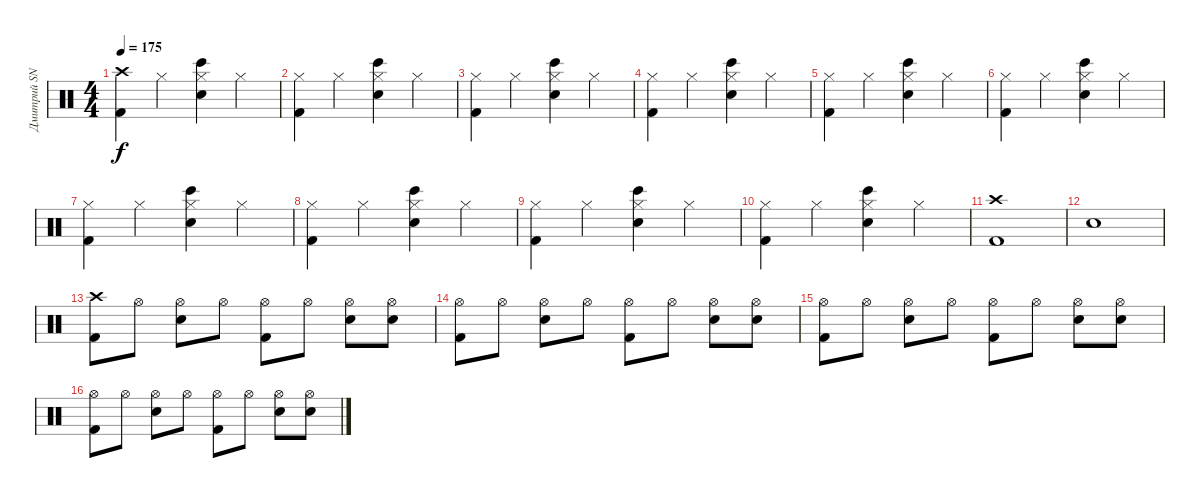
\track ("Дмитрий SNAKE Хакимов" "Дмитрий SN") {instrument percussion}
\staff {score}
\articulation defaults
\ts (4 4)
\tempo 175
\clef neutral
\ks c
("Crash high (hit)" "Kick (hit) 2").4{dy f} "Hi-Hat (closed)".4 ("Hi-Hat (closed)" "Bongo High (hit)" "Snare (hit) 2").4 "Hi-Hat (closed)".4 |
("Hi-Hat (closed)" "Kick (hit) 2").4 "Hi-Hat (closed)".4 ("Hi-Hat (closed)" "Bongo High (hit)" "Snare (hit) 2").4 "Hi-Hat (closed)".4 |
("Hi-Hat (closed)" "Kick (hit) 2").4 "Hi-Hat (closed)".4 ("Hi-Hat (closed)" "Bongo High (hit)" "Snare (hit) 2").4 "Hi-Hat (closed)".4 |
("Hi-Hat (closed)" "Kick (hit) 2").4 "Hi-Hat (closed)".4 ("Hi-Hat (closed)" "Bongo High (hit)" "Snare (hit) 2").4 "Hi-Hat (closed)".4 |
("Hi-Hat (closed)" "Kick (hit) 2").4 "Hi-Hat (closed)".4 ("Hi-Hat (closed)" "Bongo High (hit)" "Snare (hit) 2").4 "Hi-Hat (closed)".4 |
("Hi-Hat (closed)" "Kick (hit) 2").4 "Hi-Hat (closed)".4 ("Hi-Hat (closed)" "Bongo High (hit)" "Snare (hit) 2").4 "Hi-Hat (closed)".4 |
("Hi-Hat (closed)" "Kick (hit) 2").4 "Hi-Hat (closed)".4 ("Hi-Hat (closed)" "Bongo High (hit)" "Snare (hit) 2").4 "Hi-Hat (closed)".4 |
("Hi-Hat (closed)" "Kick (hit) 2").4 "Hi-Hat (closed)".4 ("Hi-Hat (closed)" "Bongo High (hit)" "Snare (hit) 2").4 "Hi-Hat (closed)".4 |
("Hi-Hat (closed)" "Kick (hit) 2").4 "Hi-Hat (closed)".4 ("Hi-Hat (closed)" "Bongo High (hit)" "Snare (hit) 2").4 "Hi-Hat (closed)".4 |
("Hi-Hat (closed)" "Kick (hit) 2").4 "Hi-Hat (closed)".4 ("Hi-Hat (closed)" "Bongo High (hit)" "Snare (hit) 2").4 "Hi-Hat (closed)".4 |
("Crash high (hit)" "Kick (hit) 2").1 |
"Snare (hit) 2".1 |
("Crash high (hit)" "Kick (hit) 2").8 "Hi-Hat (open)".8 ("Hi-Hat (open)" "Snare (hit) 2").8 "Hi-Hat (open)".8 ("Hi-Hat (open)" "Kick (hit) 2").8 "Hi-Hat (open)".8 ("Hi-Hat (open)" "Snare (hit) 2").8 ("Hi-Hat (open)" "Snare (hit) 2").8 |
("Hi-Hat (open)" "Kick (hit) 2").8 "Hi-Hat (open)".8 ("Hi-Hat (open)" "Snare (hit) 2").8 "Hi-Hat (open)".8 ("Hi-Hat (open)" "Kick (hit) 2").8 "Hi-Hat (open)".8 ("Hi-Hat (open)" "Snare (hit) 2").8 ("Hi-Hat (open)" "Snare (hit) 2").8 |
("Hi-Hat (open)" "Kick (hit) 2").8 "Hi-Hat (open)".8 ("Hi-Hat (open)" "Snare (hit) 2").8 "Hi-Hat (open)".8 ("Hi-Hat (open)" "Kick (hit) 2").8 "Hi-Hat (open)".8 ("Hi-Hat (open)" "Snare (hit) 2").8 ("Hi-Hat (open)" "Snare (hit) 2").8 |
("Hi-Hat (open)" "Kick (hit) 2").8 "Hi-Hat (open)".8 ("Hi-Hat (open)" "Snare (hit) 2").8 "Hi-Hat (open)".8 ("Hi-Hat (open)" "Kick (hit) 2").8 "Hi-Hat (open)".8 ("Hi-Hat (open)" "Snare (hit) 2").8 ("Hi-Hat (open)" "Snare (hit) 2").8
